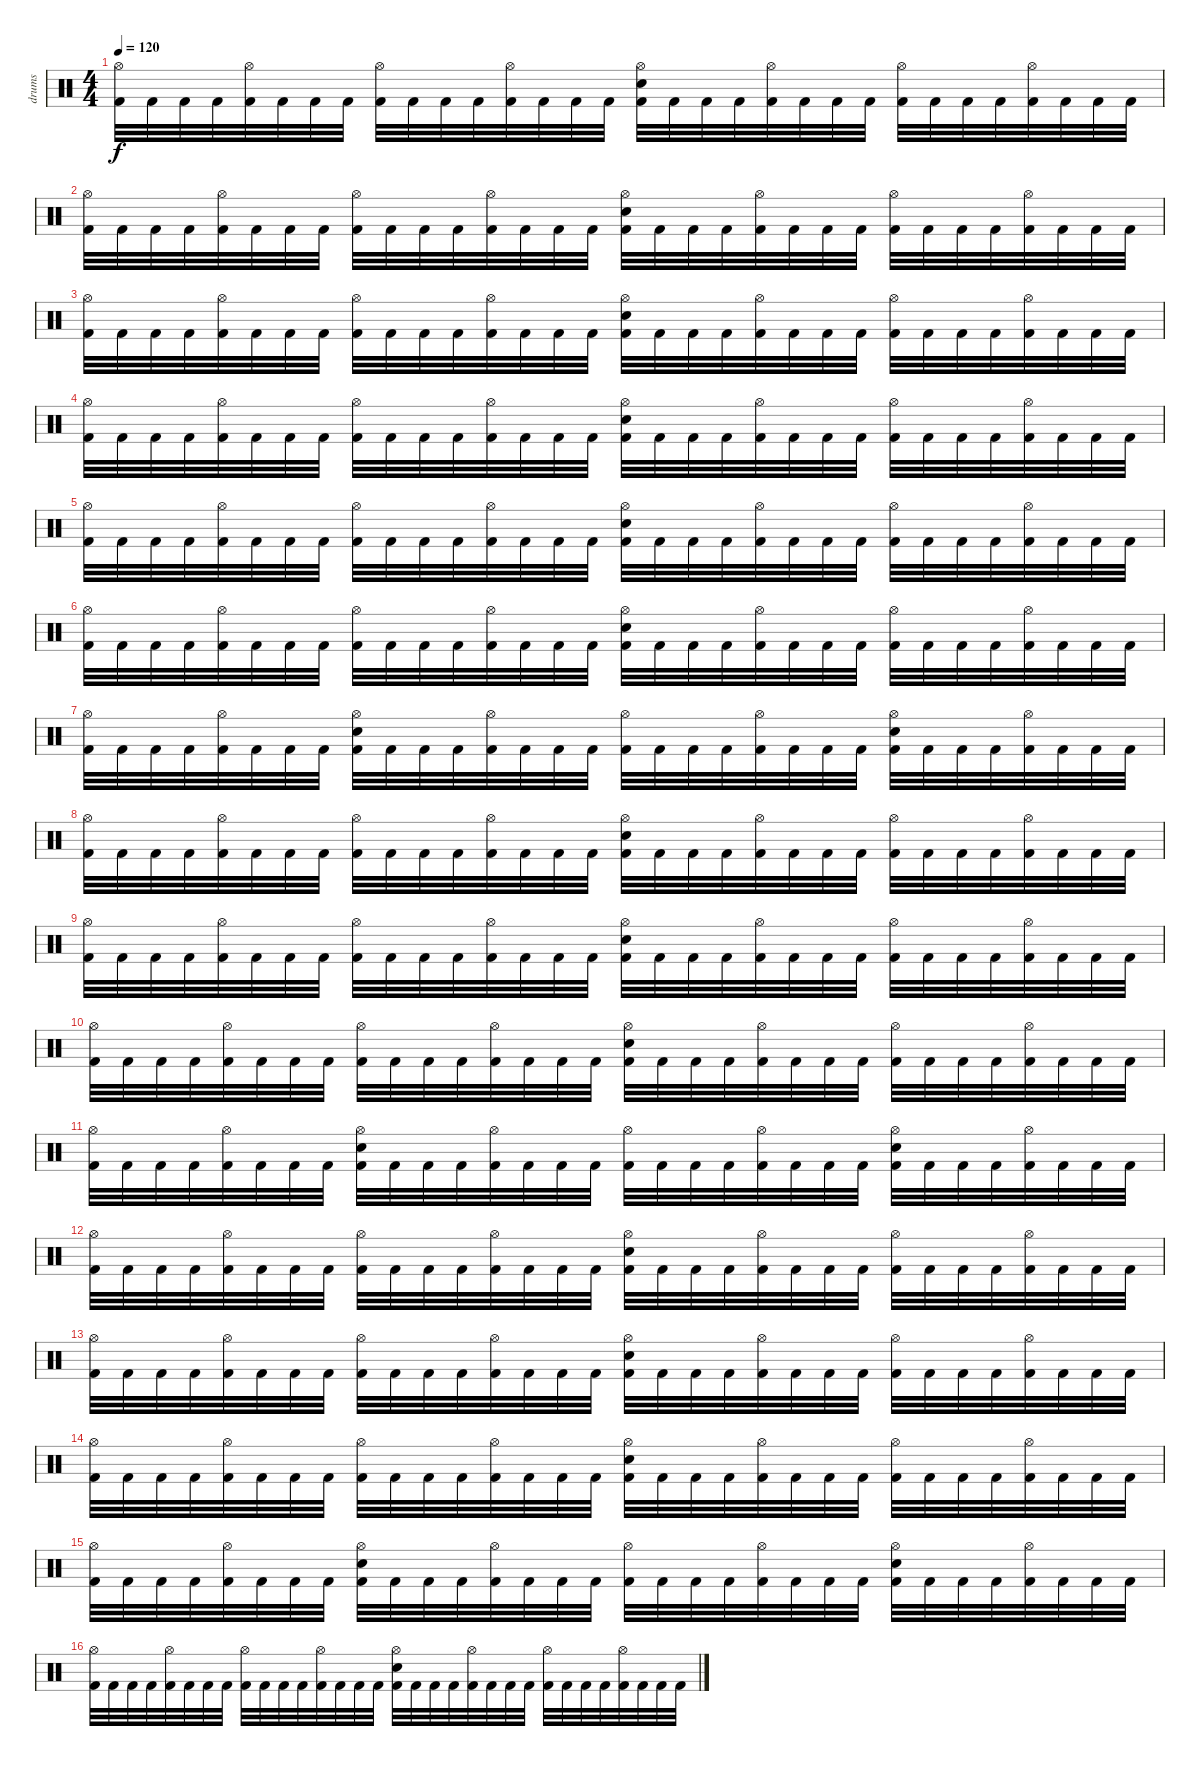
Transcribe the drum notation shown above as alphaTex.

\track ("drums" "drums") {instrument percussion}
\staff {score}
\articulation defaults
\ts (4 4)
\tempo 120
\clef neutral
\ks c
("Hi-Hat (open)" "Kick (hit) 2").32{dy f} "Kick (hit) 2".32 "Kick (hit) 2".32 "Kick (hit) 2".32 ("Hi-Hat (open)" "Kick (hit) 2").32 "Kick (hit) 2".32 "Kick (hit) 2".32 "Kick (hit) 2".32 ("Hi-Hat (open)" "Kick (hit) 2").32 "Kick (hit) 2".32 "Kick (hit) 2".32 "Kick (hit) 2".32 ("Hi-Hat (open)" "Kick (hit) 2").32 "Kick (hit) 2".32 "Kick (hit) 2".32 "Kick (hit) 2".32 ("Hi-Hat (open)" "Electric Snare (hit)" "Kick (hit) 2").32 "Kick (hit) 2".32 "Kick (hit) 2".32 "Kick (hit) 2".32 ("Hi-Hat (open)" "Kick (hit) 2").32 "Kick (hit) 2".32 "Kick (hit) 2".32 "Kick (hit) 2".32 ("Hi-Hat (open)" "Kick (hit) 2").32 "Kick (hit) 2".32 "Kick (hit) 2".32 "Kick (hit) 2".32 ("Hi-Hat (open)" "Kick (hit) 2").32 "Kick (hit) 2".32 "Kick (hit) 2".32 "Kick (hit) 2".32 |
("Hi-Hat (open)" "Kick (hit) 2").32 "Kick (hit) 2".32 "Kick (hit) 2".32 "Kick (hit) 2".32 ("Hi-Hat (open)" "Kick (hit) 2").32 "Kick (hit) 2".32 "Kick (hit) 2".32 "Kick (hit) 2".32 ("Hi-Hat (open)" "Kick (hit) 2").32 "Kick (hit) 2".32 "Kick (hit) 2".32 "Kick (hit) 2".32 ("Hi-Hat (open)" "Kick (hit) 2").32 "Kick (hit) 2".32 "Kick (hit) 2".32 "Kick (hit) 2".32 ("Hi-Hat (open)" "Electric Snare (hit)" "Kick (hit) 2").32 "Kick (hit) 2".32 "Kick (hit) 2".32 "Kick (hit) 2".32 ("Hi-Hat (open)" "Kick (hit) 2").32 "Kick (hit) 2".32 "Kick (hit) 2".32 "Kick (hit) 2".32 ("Hi-Hat (open)" "Kick (hit) 2").32 "Kick (hit) 2".32 "Kick (hit) 2".32 "Kick (hit) 2".32 ("Hi-Hat (open)" "Kick (hit) 2").32 "Kick (hit) 2".32 "Kick (hit) 2".32 "Kick (hit) 2".32 |
("Hi-Hat (open)" "Kick (hit) 2").32 "Kick (hit) 2".32 "Kick (hit) 2".32 "Kick (hit) 2".32 ("Hi-Hat (open)" "Kick (hit) 2").32 "Kick (hit) 2".32 "Kick (hit) 2".32 "Kick (hit) 2".32 ("Hi-Hat (open)" "Kick (hit) 2").32 "Kick (hit) 2".32 "Kick (hit) 2".32 "Kick (hit) 2".32 ("Hi-Hat (open)" "Kick (hit) 2").32 "Kick (hit) 2".32 "Kick (hit) 2".32 "Kick (hit) 2".32 ("Hi-Hat (open)" "Electric Snare (hit)" "Kick (hit) 2").32 "Kick (hit) 2".32 "Kick (hit) 2".32 "Kick (hit) 2".32 ("Hi-Hat (open)" "Kick (hit) 2").32 "Kick (hit) 2".32 "Kick (hit) 2".32 "Kick (hit) 2".32 ("Hi-Hat (open)" "Kick (hit) 2").32 "Kick (hit) 2".32 "Kick (hit) 2".32 "Kick (hit) 2".32 ("Hi-Hat (open)" "Kick (hit) 2").32 "Kick (hit) 2".32 "Kick (hit) 2".32 "Kick (hit) 2".32 |
("Hi-Hat (open)" "Kick (hit) 2").32 "Kick (hit) 2".32 "Kick (hit) 2".32 "Kick (hit) 2".32 ("Hi-Hat (open)" "Kick (hit) 2").32 "Kick (hit) 2".32 "Kick (hit) 2".32 "Kick (hit) 2".32 ("Hi-Hat (open)" "Kick (hit) 2").32 "Kick (hit) 2".32 "Kick (hit) 2".32 "Kick (hit) 2".32 ("Hi-Hat (open)" "Kick (hit) 2").32 "Kick (hit) 2".32 "Kick (hit) 2".32 "Kick (hit) 2".32 ("Hi-Hat (open)" "Electric Snare (hit)" "Kick (hit) 2").32 "Kick (hit) 2".32 "Kick (hit) 2".32 "Kick (hit) 2".32 ("Hi-Hat (open)" "Kick (hit) 2").32 "Kick (hit) 2".32 "Kick (hit) 2".32 "Kick (hit) 2".32 ("Hi-Hat (open)" "Kick (hit) 2").32 "Kick (hit) 2".32 "Kick (hit) 2".32 "Kick (hit) 2".32 ("Hi-Hat (open)" "Kick (hit) 2").32 "Kick (hit) 2".32 "Kick (hit) 2".32 "Kick (hit) 2".32 |
("Hi-Hat (open)" "Kick (hit) 2").32 "Kick (hit) 2".32 "Kick (hit) 2".32 "Kick (hit) 2".32 ("Hi-Hat (open)" "Kick (hit) 2").32 "Kick (hit) 2".32 "Kick (hit) 2".32 "Kick (hit) 2".32 ("Hi-Hat (open)" "Kick (hit) 2").32 "Kick (hit) 2".32 "Kick (hit) 2".32 "Kick (hit) 2".32 ("Hi-Hat (open)" "Kick (hit) 2").32 "Kick (hit) 2".32 "Kick (hit) 2".32 "Kick (hit) 2".32 ("Hi-Hat (open)" "Electric Snare (hit)" "Kick (hit) 2").32 "Kick (hit) 2".32 "Kick (hit) 2".32 "Kick (hit) 2".32 ("Hi-Hat (open)" "Kick (hit) 2").32 "Kick (hit) 2".32 "Kick (hit) 2".32 "Kick (hit) 2".32 ("Hi-Hat (open)" "Kick (hit) 2").32 "Kick (hit) 2".32 "Kick (hit) 2".32 "Kick (hit) 2".32 ("Hi-Hat (open)" "Kick (hit) 2").32 "Kick (hit) 2".32 "Kick (hit) 2".32 "Kick (hit) 2".32 |
("Hi-Hat (open)" "Kick (hit) 2").32 "Kick (hit) 2".32 "Kick (hit) 2".32 "Kick (hit) 2".32 ("Hi-Hat (open)" "Kick (hit) 2").32 "Kick (hit) 2".32 "Kick (hit) 2".32 "Kick (hit) 2".32 ("Hi-Hat (open)" "Kick (hit) 2").32 "Kick (hit) 2".32 "Kick (hit) 2".32 "Kick (hit) 2".32 ("Hi-Hat (open)" "Kick (hit) 2").32 "Kick (hit) 2".32 "Kick (hit) 2".32 "Kick (hit) 2".32 ("Hi-Hat (open)" "Electric Snare (hit)" "Kick (hit) 2").32 "Kick (hit) 2".32 "Kick (hit) 2".32 "Kick (hit) 2".32 ("Hi-Hat (open)" "Kick (hit) 2").32 "Kick (hit) 2".32 "Kick (hit) 2".32 "Kick (hit) 2".32 ("Hi-Hat (open)" "Kick (hit) 2").32 "Kick (hit) 2".32 "Kick (hit) 2".32 "Kick (hit) 2".32 ("Hi-Hat (open)" "Kick (hit) 2").32 "Kick (hit) 2".32 "Kick (hit) 2".32 "Kick (hit) 2".32 |
("Hi-Hat (open)" "Kick (hit) 2").32 "Kick (hit) 2".32 "Kick (hit) 2".32 "Kick (hit) 2".32 ("Hi-Hat (open)" "Kick (hit) 2").32 "Kick (hit) 2".32 "Kick (hit) 2".32 "Kick (hit) 2".32 ("Hi-Hat (open)" "Electric Snare (hit)" "Kick (hit) 2").32 "Kick (hit) 2".32 "Kick (hit) 2".32 "Kick (hit) 2".32 ("Hi-Hat (open)" "Kick (hit) 2").32 "Kick (hit) 2".32 "Kick (hit) 2".32 "Kick (hit) 2".32 ("Hi-Hat (open)" "Kick (hit) 2").32 "Kick (hit) 2".32 "Kick (hit) 2".32 "Kick (hit) 2".32 ("Hi-Hat (open)" "Kick (hit) 2").32 "Kick (hit) 2".32 "Kick (hit) 2".32 "Kick (hit) 2".32 ("Hi-Hat (open)" "Electric Snare (hit)" "Kick (hit) 2").32 "Kick (hit) 2".32 "Kick (hit) 2".32 "Kick (hit) 2".32 ("Hi-Hat (open)" "Kick (hit) 2").32 "Kick (hit) 2".32 "Kick (hit) 2".32 "Kick (hit) 2".32 |
("Hi-Hat (open)" "Kick (hit) 2").32 "Kick (hit) 2".32 "Kick (hit) 2".32 "Kick (hit) 2".32 ("Hi-Hat (open)" "Kick (hit) 2").32 "Kick (hit) 2".32 "Kick (hit) 2".32 "Kick (hit) 2".32 ("Hi-Hat (open)" "Kick (hit) 2").32 "Kick (hit) 2".32 "Kick (hit) 2".32 "Kick (hit) 2".32 ("Hi-Hat (open)" "Kick (hit) 2").32 "Kick (hit) 2".32 "Kick (hit) 2".32 "Kick (hit) 2".32 ("Hi-Hat (open)" "Electric Snare (hit)" "Kick (hit) 2").32 "Kick (hit) 2".32 "Kick (hit) 2".32 "Kick (hit) 2".32 ("Hi-Hat (open)" "Kick (hit) 2").32 "Kick (hit) 2".32 "Kick (hit) 2".32 "Kick (hit) 2".32 ("Hi-Hat (open)" "Kick (hit) 2").32 "Kick (hit) 2".32 "Kick (hit) 2".32 "Kick (hit) 2".32 ("Hi-Hat (open)" "Kick (hit) 2").32 "Kick (hit) 2".32 "Kick (hit) 2".32 "Kick (hit) 2".32 |
("Hi-Hat (open)" "Kick (hit) 2").32 "Kick (hit) 2".32 "Kick (hit) 2".32 "Kick (hit) 2".32 ("Hi-Hat (open)" "Kick (hit) 2").32 "Kick (hit) 2".32 "Kick (hit) 2".32 "Kick (hit) 2".32 ("Hi-Hat (open)" "Kick (hit) 2").32 "Kick (hit) 2".32 "Kick (hit) 2".32 "Kick (hit) 2".32 ("Hi-Hat (open)" "Kick (hit) 2").32 "Kick (hit) 2".32 "Kick (hit) 2".32 "Kick (hit) 2".32 ("Hi-Hat (open)" "Electric Snare (hit)" "Kick (hit) 2").32 "Kick (hit) 2".32 "Kick (hit) 2".32 "Kick (hit) 2".32 ("Hi-Hat (open)" "Kick (hit) 2").32 "Kick (hit) 2".32 "Kick (hit) 2".32 "Kick (hit) 2".32 ("Hi-Hat (open)" "Kick (hit) 2").32 "Kick (hit) 2".32 "Kick (hit) 2".32 "Kick (hit) 2".32 ("Hi-Hat (open)" "Kick (hit) 2").32 "Kick (hit) 2".32 "Kick (hit) 2".32 "Kick (hit) 2".32 |
("Hi-Hat (open)" "Kick (hit) 2").32 "Kick (hit) 2".32 "Kick (hit) 2".32 "Kick (hit) 2".32 ("Hi-Hat (open)" "Kick (hit) 2").32 "Kick (hit) 2".32 "Kick (hit) 2".32 "Kick (hit) 2".32 ("Hi-Hat (open)" "Kick (hit) 2").32 "Kick (hit) 2".32 "Kick (hit) 2".32 "Kick (hit) 2".32 ("Hi-Hat (open)" "Kick (hit) 2").32 "Kick (hit) 2".32 "Kick (hit) 2".32 "Kick (hit) 2".32 ("Hi-Hat (open)" "Electric Snare (hit)" "Kick (hit) 2").32 "Kick (hit) 2".32 "Kick (hit) 2".32 "Kick (hit) 2".32 ("Hi-Hat (open)" "Kick (hit) 2").32 "Kick (hit) 2".32 "Kick (hit) 2".32 "Kick (hit) 2".32 ("Hi-Hat (open)" "Kick (hit) 2").32 "Kick (hit) 2".32 "Kick (hit) 2".32 "Kick (hit) 2".32 ("Hi-Hat (open)" "Kick (hit) 2").32 "Kick (hit) 2".32 "Kick (hit) 2".32 "Kick (hit) 2".32 |
("Hi-Hat (open)" "Kick (hit) 2").32 "Kick (hit) 2".32 "Kick (hit) 2".32 "Kick (hit) 2".32 ("Hi-Hat (open)" "Kick (hit) 2").32 "Kick (hit) 2".32 "Kick (hit) 2".32 "Kick (hit) 2".32 ("Hi-Hat (open)" "Electric Snare (hit)" "Kick (hit) 2").32 "Kick (hit) 2".32 "Kick (hit) 2".32 "Kick (hit) 2".32 ("Hi-Hat (open)" "Kick (hit) 2").32 "Kick (hit) 2".32 "Kick (hit) 2".32 "Kick (hit) 2".32 ("Hi-Hat (open)" "Kick (hit) 2").32 "Kick (hit) 2".32 "Kick (hit) 2".32 "Kick (hit) 2".32 ("Hi-Hat (open)" "Kick (hit) 2").32 "Kick (hit) 2".32 "Kick (hit) 2".32 "Kick (hit) 2".32 ("Hi-Hat (open)" "Electric Snare (hit)" "Kick (hit) 2").32 "Kick (hit) 2".32 "Kick (hit) 2".32 "Kick (hit) 2".32 ("Hi-Hat (open)" "Kick (hit) 2").32 "Kick (hit) 2".32 "Kick (hit) 2".32 "Kick (hit) 2".32 |
("Hi-Hat (open)" "Kick (hit) 2").32 "Kick (hit) 2".32 "Kick (hit) 2".32 "Kick (hit) 2".32 ("Hi-Hat (open)" "Kick (hit) 2").32 "Kick (hit) 2".32 "Kick (hit) 2".32 "Kick (hit) 2".32 ("Hi-Hat (open)" "Kick (hit) 2").32 "Kick (hit) 2".32 "Kick (hit) 2".32 "Kick (hit) 2".32 ("Hi-Hat (open)" "Kick (hit) 2").32 "Kick (hit) 2".32 "Kick (hit) 2".32 "Kick (hit) 2".32 ("Hi-Hat (open)" "Electric Snare (hit)" "Kick (hit) 2").32 "Kick (hit) 2".32 "Kick (hit) 2".32 "Kick (hit) 2".32 ("Hi-Hat (open)" "Kick (hit) 2").32 "Kick (hit) 2".32 "Kick (hit) 2".32 "Kick (hit) 2".32 ("Hi-Hat (open)" "Kick (hit) 2").32 "Kick (hit) 2".32 "Kick (hit) 2".32 "Kick (hit) 2".32 ("Hi-Hat (open)" "Kick (hit) 2").32 "Kick (hit) 2".32 "Kick (hit) 2".32 "Kick (hit) 2".32 |
("Hi-Hat (open)" "Kick (hit) 2").32 "Kick (hit) 2".32 "Kick (hit) 2".32 "Kick (hit) 2".32 ("Hi-Hat (open)" "Kick (hit) 2").32 "Kick (hit) 2".32 "Kick (hit) 2".32 "Kick (hit) 2".32 ("Hi-Hat (open)" "Kick (hit) 2").32 "Kick (hit) 2".32 "Kick (hit) 2".32 "Kick (hit) 2".32 ("Hi-Hat (open)" "Kick (hit) 2").32 "Kick (hit) 2".32 "Kick (hit) 2".32 "Kick (hit) 2".32 ("Hi-Hat (open)" "Electric Snare (hit)" "Kick (hit) 2").32 "Kick (hit) 2".32 "Kick (hit) 2".32 "Kick (hit) 2".32 ("Hi-Hat (open)" "Kick (hit) 2").32 "Kick (hit) 2".32 "Kick (hit) 2".32 "Kick (hit) 2".32 ("Hi-Hat (open)" "Kick (hit) 2").32 "Kick (hit) 2".32 "Kick (hit) 2".32 "Kick (hit) 2".32 ("Hi-Hat (open)" "Kick (hit) 2").32 "Kick (hit) 2".32 "Kick (hit) 2".32 "Kick (hit) 2".32 |
("Hi-Hat (open)" "Kick (hit) 2").32 "Kick (hit) 2".32 "Kick (hit) 2".32 "Kick (hit) 2".32 ("Hi-Hat (open)" "Kick (hit) 2").32 "Kick (hit) 2".32 "Kick (hit) 2".32 "Kick (hit) 2".32 ("Hi-Hat (open)" "Kick (hit) 2").32 "Kick (hit) 2".32 "Kick (hit) 2".32 "Kick (hit) 2".32 ("Hi-Hat (open)" "Kick (hit) 2").32 "Kick (hit) 2".32 "Kick (hit) 2".32 "Kick (hit) 2".32 ("Hi-Hat (open)" "Electric Snare (hit)" "Kick (hit) 2").32 "Kick (hit) 2".32 "Kick (hit) 2".32 "Kick (hit) 2".32 ("Hi-Hat (open)" "Kick (hit) 2").32 "Kick (hit) 2".32 "Kick (hit) 2".32 "Kick (hit) 2".32 ("Hi-Hat (open)" "Kick (hit) 2").32 "Kick (hit) 2".32 "Kick (hit) 2".32 "Kick (hit) 2".32 ("Hi-Hat (open)" "Kick (hit) 2").32 "Kick (hit) 2".32 "Kick (hit) 2".32 "Kick (hit) 2".32 |
("Hi-Hat (open)" "Kick (hit) 2").32 "Kick (hit) 2".32 "Kick (hit) 2".32 "Kick (hit) 2".32 ("Hi-Hat (open)" "Kick (hit) 2").32 "Kick (hit) 2".32 "Kick (hit) 2".32 "Kick (hit) 2".32 ("Hi-Hat (open)" "Electric Snare (hit)" "Kick (hit) 2").32 "Kick (hit) 2".32 "Kick (hit) 2".32 "Kick (hit) 2".32 ("Hi-Hat (open)" "Kick (hit) 2").32 "Kick (hit) 2".32 "Kick (hit) 2".32 "Kick (hit) 2".32 ("Hi-Hat (open)" "Kick (hit) 2").32 "Kick (hit) 2".32 "Kick (hit) 2".32 "Kick (hit) 2".32 ("Hi-Hat (open)" "Kick (hit) 2").32 "Kick (hit) 2".32 "Kick (hit) 2".32 "Kick (hit) 2".32 ("Hi-Hat (open)" "Electric Snare (hit)" "Kick (hit) 2").32 "Kick (hit) 2".32 "Kick (hit) 2".32 "Kick (hit) 2".32 ("Hi-Hat (open)" "Kick (hit) 2").32 "Kick (hit) 2".32 "Kick (hit) 2".32 "Kick (hit) 2".32 |
("Hi-Hat (open)" "Kick (hit) 2").32 "Kick (hit) 2".32 "Kick (hit) 2".32 "Kick (hit) 2".32 ("Hi-Hat (open)" "Kick (hit) 2").32 "Kick (hit) 2".32 "Kick (hit) 2".32 "Kick (hit) 2".32 ("Hi-Hat (open)" "Kick (hit) 2").32 "Kick (hit) 2".32 "Kick (hit) 2".32 "Kick (hit) 2".32 ("Hi-Hat (open)" "Kick (hit) 2").32 "Kick (hit) 2".32 "Kick (hit) 2".32 "Kick (hit) 2".32 ("Hi-Hat (open)" "Electric Snare (hit)" "Kick (hit) 2").32 "Kick (hit) 2".32 "Kick (hit) 2".32 "Kick (hit) 2".32 ("Hi-Hat (open)" "Kick (hit) 2").32 "Kick (hit) 2".32 "Kick (hit) 2".32 "Kick (hit) 2".32 ("Hi-Hat (open)" "Kick (hit) 2").32 "Kick (hit) 2".32 "Kick (hit) 2".32 "Kick (hit) 2".32 ("Hi-Hat (open)" "Kick (hit) 2").32 "Kick (hit) 2".32 "Kick (hit) 2".32 "Kick (hit) 2".32
